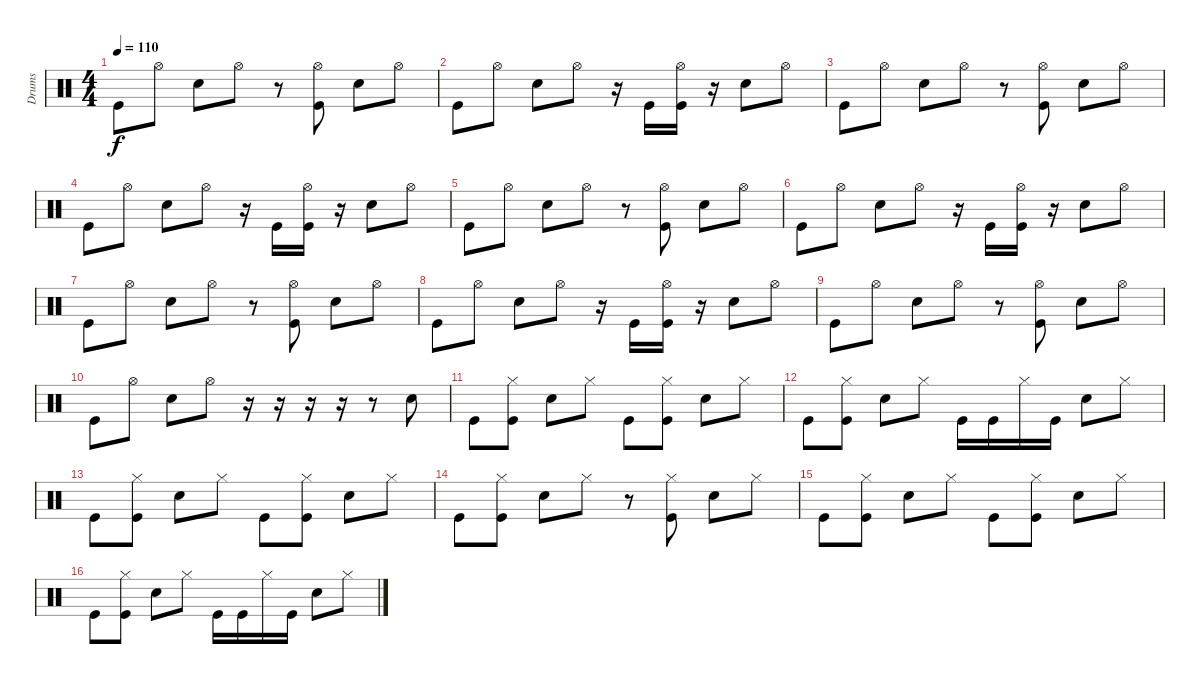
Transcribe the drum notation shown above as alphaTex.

\track ("Drums" "Drums") {instrument percussion}
\staff {score}
\articulation defaults
\ts (4 4)
\tempo 110
\clef neutral
\ks c "Kick (hit)".8{dy f} "Hi-Hat (open)".8 "Electric Snare (hit)".8 "Hi-Hat (open)".8
r.8 ("Hi-Hat (open)" "Kick (hit)").8 "Electric Snare (hit)".8 "Hi-Hat (open)".8 |
"Kick (hit)".8 "Hi-Hat (open)".8 "Electric Snare (hit)".8 "Hi-Hat (open)".8 r.16 "Kick (hit)".16 ("Hi-Hat (open)" "Kick (hit)").16 r.16 "Electric Snare (hit)".8 "Hi-Hat (open)".8 |
"Kick (hit)".8 "Hi-Hat (open)".8 "Electric Snare (hit)".8 "Hi-Hat (open)".8 r.8 ("Hi-Hat (open)" "Kick (hit)").8 "Electric Snare (hit)".8 "Hi-Hat (open)".8 |
"Kick (hit)".8 "Hi-Hat (open)".8 "Electric Snare (hit)".8 "Hi-Hat (open)".8 r.16 "Kick (hit)".16 ("Hi-Hat (open)" "Kick (hit)").16 r.16 "Electric Snare (hit)".8 "Hi-Hat (open)".8 |
"Kick (hit)".8 "Hi-Hat (open)".8 "Electric Snare (hit)".8 "Hi-Hat (open)".8 r.8 ("Hi-Hat (open)" "Kick (hit)").8 "Electric Snare (hit)".8 "Hi-Hat (open)".8 |
"Kick (hit)".8 "Hi-Hat (open)".8 "Electric Snare (hit)".8 "Hi-Hat (open)".8 r.16 "Kick (hit)".16 ("Hi-Hat (open)" "Kick (hit)").16 r.16 "Electric Snare (hit)".8 "Hi-Hat (open)".8 |
"Kick (hit)".8 "Hi-Hat (open)".8 "Electric Snare (hit)".8 "Hi-Hat (open)".8 r.8 ("Hi-Hat (open)" "Kick (hit)").8 "Electric Snare (hit)".8 "Hi-Hat (open)".8 |
"Kick (hit)".8 "Hi-Hat (open)".8 "Electric Snare (hit)".8 "Hi-Hat (open)".8 r.16 "Kick (hit)".16 ("Hi-Hat (open)" "Kick (hit)").16 r.16 "Electric Snare (hit)".8 "Hi-Hat (open)".8 |
"Kick (hit)".8 "Hi-Hat (open)".8 "Electric Snare (hit)".8 "Hi-Hat (open)".8 r.8 ("Hi-Hat (open)" "Kick (hit)").8 "Electric Snare (hit)".8 "Hi-Hat (open)".8 |
"Kick (hit)".8 "Hi-Hat (open)".8 "Electric Snare (hit)".8 "Hi-Hat (open)".8 r.16 r.16 r.16 r.16 r.8 "Electric Snare (hit)".8 |
"Kick (hit)".8 ("Hi-Hat (closed)" "Kick (hit)").8 "Electric Snare (hit)".8 "Hi-Hat (closed)".8 "Kick (hit)".8 ("Hi-Hat (closed)" "Kick (hit)").8 "Electric Snare (hit)".8 "Hi-Hat (closed)".8 |
"Kick (hit)".8 ("Hi-Hat (closed)" "Kick (hit)").8 "Electric Snare (hit)".8 "Hi-Hat (closed)".8 "Kick (hit)".16 "Kick (hit)".16 "Hi-Hat (closed)".16 "Kick (hit)".16 "Electric Snare (hit)".8 "Hi-Hat (closed)".8 |
"Kick (hit)".8 ("Hi-Hat (closed)" "Kick (hit)").8 "Electric Snare (hit)".8 "Hi-Hat (closed)".8 "Kick (hit)".8 ("Hi-Hat (closed)" "Kick (hit)").8 "Electric Snare (hit)".8 "Hi-Hat (closed)".8 |
"Kick (hit)".8 ("Hi-Hat (closed)" "Kick (hit)").8 "Electric Snare (hit)".8 "Hi-Hat (closed)".8 r.8 ("Hi-Hat (closed)" "Kick (hit)").8 "Electric Snare (hit)".8 "Hi-Hat (closed)".8 |
"Kick (hit)".8 ("Hi-Hat (closed)" "Kick (hit)").8 "Electric Snare (hit)".8 "Hi-Hat (closed)".8 "Kick (hit)".8 ("Hi-Hat (closed)" "Kick (hit)").8 "Electric Snare (hit)".8 "Hi-Hat (closed)".8 |
"Kick (hit)".8 ("Hi-Hat (closed)" "Kick (hit)").8 "Electric Snare (hit)".8 "Hi-Hat (closed)".8 "Kick (hit)".16 "Kick (hit)".16 "Hi-Hat (closed)".16 "Kick (hit)".16 "Electric Snare (hit)".8 "Hi-Hat (closed)".8
